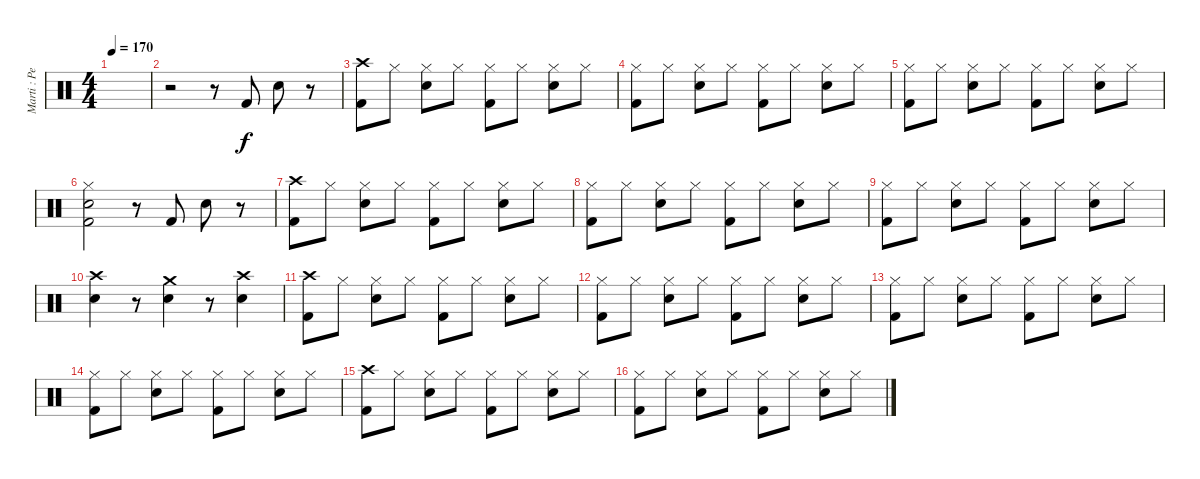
\track ("Marti : Percussion" "Marti : Pe") {instrument percussion}
\staff {score}
\articulation defaults
\ts (4 4)
\tempo 170
\clef neutral
\ks c
|
r.2 r.8 "Kick (hit) 2".8 "Electric Snare (hit)".8 r.8 |
("Kick (hit) 2" "Crash high (hit)").8 "Hi-Hat (closed)".8 ("Electric Snare (hit)" "Hi-Hat (closed)").8 "Hi-Hat (closed)".8 ("Kick (hit) 2" "Hi-Hat (closed)").8 "Hi-Hat (closed)".8 ("Electric Snare (hit)" "Hi-Hat (closed)").8 "Hi-Hat (closed)".8 |
("Kick (hit) 2" "Hi-Hat (closed)").8 "Hi-Hat (closed)".8 ("Electric Snare (hit)" "Hi-Hat (closed)").8 "Hi-Hat (closed)".8 ("Kick (hit) 2" "Hi-Hat (closed)").8 "Hi-Hat (closed)".8 ("Electric Snare (hit)" "Hi-Hat (closed)").8 "Hi-Hat (closed)".8 |
("Kick (hit) 2" "Hi-Hat (closed)").8 "Hi-Hat (closed)".8 ("Electric Snare (hit)" "Hi-Hat (closed)").8 "Hi-Hat (closed)".8 ("Kick (hit) 2" "Hi-Hat (closed)").8 "Hi-Hat (closed)".8 ("Electric Snare (hit)" "Hi-Hat (closed)").8 "Hi-Hat (closed)".8 |
("Electric Snare (hit)" "Kick (hit) 2" "Hi-Hat (closed)").2 r.8 "Kick (hit) 2".8 "Electric Snare (hit)".8 r.8 |
("Kick (hit) 2" "Crash high (hit)").8 "Hi-Hat (closed)".8 ("Electric Snare (hit)" "Hi-Hat (closed)").8 "Hi-Hat (closed)".8 ("Kick (hit) 2" "Hi-Hat (closed)").8 "Hi-Hat (closed)".8 ("Electric Snare (hit)" "Hi-Hat (closed)").8 "Hi-Hat (closed)".8 |
("Kick (hit) 2" "Hi-Hat (closed)").8 "Hi-Hat (closed)".8 ("Electric Snare (hit)" "Hi-Hat (closed)").8 "Hi-Hat (closed)".8 ("Kick (hit) 2" "Hi-Hat (closed)").8 "Hi-Hat (closed)".8 ("Electric Snare (hit)" "Hi-Hat (closed)").8 "Hi-Hat (closed)".8 |
("Kick (hit) 2" "Hi-Hat (closed)").8 "Hi-Hat (closed)".8 ("Electric Snare (hit)" "Hi-Hat (closed)").8 "Hi-Hat (closed)".8 ("Kick (hit) 2" "Hi-Hat (closed)").8 "Hi-Hat (closed)".8 ("Electric Snare (hit)" "Hi-Hat (closed)").8 "Hi-Hat (closed)".8 |
("Electric Snare (hit)" "Crash high (hit)").4 r.8 ("Electric Snare (hit)" "Crash medium (hit)").4 r.8 ("Electric Snare (hit)" "Crash high (hit)").4 |
("Kick (hit) 2" "Crash high (hit)").8 "Hi-Hat (closed)".8 ("Electric Snare (hit)" "Hi-Hat (closed)").8 "Hi-Hat (closed)".8 ("Kick (hit) 2" "Hi-Hat (closed)").8 "Hi-Hat (closed)".8 ("Electric Snare (hit)" "Hi-Hat (closed)").8 "Hi-Hat (closed)".8 |
("Kick (hit) 2" "Hi-Hat (closed)").8 "Hi-Hat (closed)".8 ("Electric Snare (hit)" "Hi-Hat (closed)").8 "Hi-Hat (closed)".8 ("Kick (hit) 2" "Hi-Hat (closed)").8 "Hi-Hat (closed)".8 ("Electric Snare (hit)" "Hi-Hat (closed)").8 "Hi-Hat (closed)".8 |
("Kick (hit) 2" "Hi-Hat (closed)").8 "Hi-Hat (closed)".8 ("Electric Snare (hit)" "Hi-Hat (closed)").8 "Hi-Hat (closed)".8 ("Kick (hit) 2" "Hi-Hat (closed)").8 "Hi-Hat (closed)".8 ("Electric Snare (hit)" "Hi-Hat (closed)").8 "Hi-Hat (closed)".8 |
("Kick (hit) 2" "Hi-Hat (closed)").8 "Hi-Hat (closed)".8 ("Electric Snare (hit)" "Hi-Hat (closed)").8 "Hi-Hat (closed)".8 ("Kick (hit) 2" "Hi-Hat (closed)").8 "Hi-Hat (closed)".8 ("Electric Snare (hit)" "Hi-Hat (closed)").8 "Hi-Hat (closed)".8 |
("Kick (hit) 2" "Crash high (hit)").8 "Hi-Hat (closed)".8 ("Electric Snare (hit)" "Hi-Hat (closed)").8 "Hi-Hat (closed)".8 ("Kick (hit) 2" "Hi-Hat (closed)").8 "Hi-Hat (closed)".8 ("Electric Snare (hit)" "Hi-Hat (closed)").8 "Hi-Hat (closed)".8 |
("Kick (hit) 2" "Hi-Hat (closed)").8 "Hi-Hat (closed)".8 ("Electric Snare (hit)" "Hi-Hat (closed)").8 "Hi-Hat (closed)".8 ("Kick (hit) 2" "Hi-Hat (closed)").8 "Hi-Hat (closed)".8 ("Electric Snare (hit)" "Hi-Hat (closed)").8 "Hi-Hat (closed)".8
